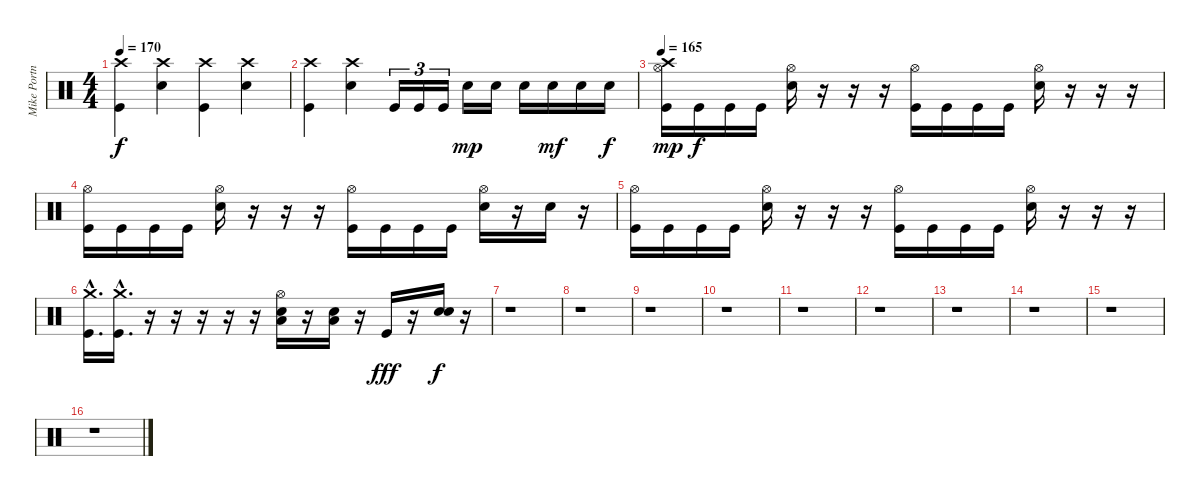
\track ("Mike Portnoy" "Mike Portn") {instrument percussion}
\staff {score}
\articulation defaults
\ts (4 4)
\tempo 170
\clef neutral
\ks c
("Crash high (hit)" "Kick (hit)").4{dy f} ("Crash high (hit)" "Electric Snare (hit)").4 ("Crash high (hit)" "Kick (hit)").4 ("Crash high (hit)" "Electric Snare (hit)").4 |
("Crash high (hit)" "Kick (hit)").4 ("Crash high (hit)" "Electric Snare (hit)").4 "Kick (hit)".16{tu (3 2)} "Kick (hit)".16{tu (3 2)} "Kick (hit)".16{tu (3 2)} "Electric Snare (hit)".16{dy mp} "Electric Snare (hit)".16 "Electric Snare (hit)".16 "Electric Snare (hit)".16{dy mf} "Electric Snare (hit)".16 "Electric Snare (hit)".16{dy f} |
\tempo 165
("Hi-Hat (open)" "Crash high (hit)" "Kick (hit)").16{dy mp} "Kick (hit)".16{dy f} "Kick (hit)".16 "Kick (hit)".16 ("Hi-Hat (open)" "Electric Snare (hit)").16 r.16 r.16 r.16 ("Hi-Hat (open)" "Kick (hit)").16 "Kick (hit)".16 "Kick (hit)".16 "Kick (hit)".16 ("Hi-Hat (open)" "Electric Snare (hit)").16 r.16 r.16 r.16 |
("Hi-Hat (open)" "Kick (hit)").16 "Kick (hit)".16 "Kick (hit)".16 "Kick (hit)".16 ("Hi-Hat (open)" "Electric Snare (hit)").16 r.16 r.16 r.16 ("Hi-Hat (open)" "Kick (hit)").16 "Kick (hit)".16 "Kick (hit)".16 "Kick (hit)".16 ("Hi-Hat (open)" "Electric Snare (hit)").16 r.16 "Electric Snare (hit)".16 r.16 |
("Hi-Hat (open)" "Kick (hit)").16 "Kick (hit)".16 "Kick (hit)".16 "Kick (hit)".16 ("Hi-Hat (open)" "Electric Snare (hit)").16 r.16 r.16 r.16 ("Hi-Hat (open)" "Kick (hit)").16 "Kick (hit)".16 "Kick (hit)".16 "Kick (hit)".16 ("Hi-Hat (open)" "Electric Snare (hit)").16 r.16 r.16 r.16 |
("Crash medium (hit)"{hac} "Kick (hit)"{hac}).16{d} ("Crash medium (hit)"{hac} "Kick (hit)"{hac}).16{d} r.16 r.16 r.16 r.16 r.16 ("Hi-Hat (open)" "Electric Snare (hit)" "Low Tom (hit)").16 r.16 ("Electric Snare (hit)" "Low Tom (hit)").16 r.16 "Kick (hit)".16{dy fff} r.16 ("Electric Snare (hit)" "Electric Snare (hit)").16{dy f} r.16 |
r.1 |
r.1 |
r.1 |
r.1 |
r.1 |
r.1 |
r.1 |
r.1 |
r.1 |
r.1
